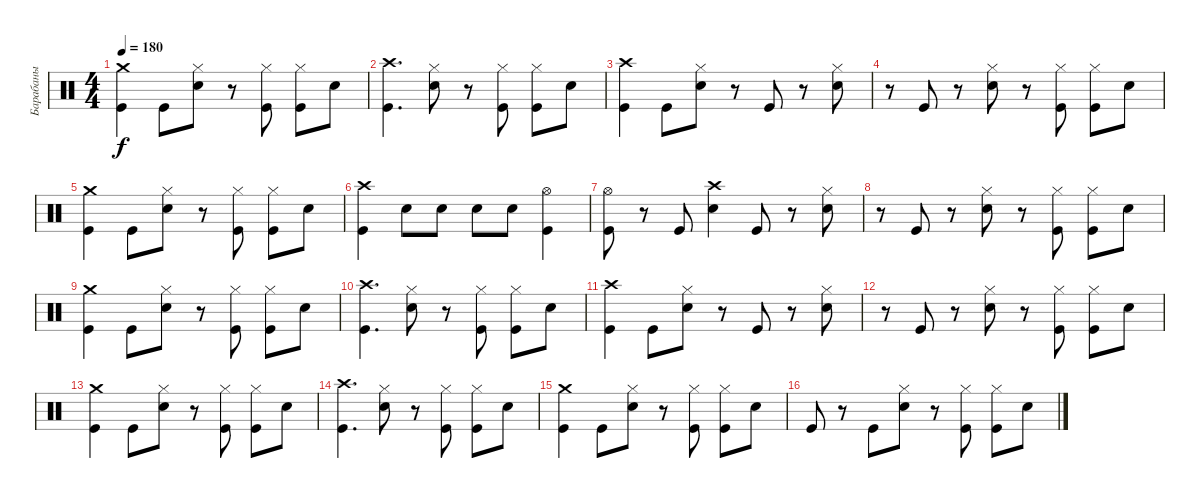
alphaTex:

\track ("Барабаны" "Барабаны") {instrument percussion}
\staff {score}
\articulation defaults
\ts (4 4)
\tempo 180
\clef neutral
\ks c
("Kick (hit)" "Crash medium (hit)").4{dy f} "Kick (hit)".8 ("Electric Snare (hit)" "Hi-Hat (closed)").8 r.8 ("Hi-Hat (closed)" "Kick (hit)").8 ("Hi-Hat (closed)" "Kick (hit)").8 "Electric Snare (hit)".8 |
("Crash high (hit)" "Kick (hit)").4{d} ("Hi-Hat (closed)" "Electric Snare (hit)").8 r.8 ("Hi-Hat (closed)" "Kick (hit)").8 ("Kick (hit)" "Hi-Hat (closed)").8 "Electric Snare (hit)".8 |
("Kick (hit)" "Crash high (hit)").4 "Kick (hit)".8 ("Hi-Hat (closed)" "Electric Snare (hit)").8 r.8 "Kick (hit)".8 r.8 ("Electric Snare (hit)" "Hi-Hat (closed)").8 |
r.8 "Kick (hit)".8 r.8 ("Electric Snare (hit)" "Hi-Hat (closed)").8 r.8 ("Kick (hit)" "Hi-Hat (closed)").8 ("Kick (hit)" "Hi-Hat (closed)").8 "Electric Snare (hit)".8 |
("Crash medium (hit)" "Kick (hit)").4 "Kick (hit)".8 ("Electric Snare (hit)" "Hi-Hat (closed)").8 r.8 ("Hi-Hat (closed)" "Kick (hit)").8 ("Hi-Hat (closed)" "Kick (hit)").8 "Electric Snare (hit)".8 |
("Kick (hit)" "Crash high (hit)").4 "Electric Snare (hit)".8 "Electric Snare (hit)".8 "Electric Snare (hit)".8 "Electric Snare (hit)".8 ("Hi-Hat (open)" "Kick (hit)").4 |
("Hi-Hat (open)" "Kick (hit)").8 r.8 "Kick (hit)".8 ("Electric Snare (hit)" "Crash high (hit)").4 "Kick (hit)".8 r.8 ("Hi-Hat (closed)" "Electric Snare (hit)").8 |
r.8 "Kick (hit)".8 r.8 ("Electric Snare (hit)" "Hi-Hat (closed)").8 r.8 ("Hi-Hat (closed)" "Kick (hit)").8 ("Kick (hit)" "Hi-Hat (closed)").8 "Electric Snare (hit)".8 |
("Crash medium (hit)" "Kick (hit)").4 "Kick (hit)".8 ("Electric Snare (hit)" "Hi-Hat (closed)").8 r.8 ("Kick (hit)" "Hi-Hat (closed)").8 ("Hi-Hat (closed)" "Kick (hit)").8 "Electric Snare (hit)".8 |
("Crash high (hit)" "Kick (hit)").4{d} ("Electric Snare (hit)" "Hi-Hat (closed)").8 r.8 ("Hi-Hat (closed)" "Kick (hit)").8 ("Kick (hit)" "Hi-Hat (closed)").8 "Electric Snare (hit)".8 |
("Kick (hit)" "Crash high (hit)").4 "Kick (hit)".8 ("Hi-Hat (closed)" "Electric Snare (hit)").8 r.8 "Kick (hit)".8 r.8 ("Electric Snare (hit)" "Hi-Hat (closed)").8 |
r.8 "Kick (hit)".8 r.8 ("Hi-Hat (closed)" "Electric Snare (hit)").8 r.8 ("Kick (hit)" "Hi-Hat (closed)").8 ("Kick (hit)" "Hi-Hat (closed)").8 "Electric Snare (hit)".8 |
("Kick (hit)" "Crash medium (hit)").4 "Kick (hit)".8 ("Electric Snare (hit)" "Hi-Hat (closed)").8 r.8 ("Kick (hit)" "Hi-Hat (closed)").8 ("Kick (hit)" "Hi-Hat (closed)").8 "Electric Snare (hit)".8 |
("Crash high (hit)" "Kick (hit)").4{d} ("Electric Snare (hit)" "Hi-Hat (closed)").8 r.8 ("Hi-Hat (closed)" "Kick (hit)").8 ("Kick (hit)" "Hi-Hat (closed)").8 "Electric Snare (hit)".8 |
("Kick (hit)" "Crash medium (hit)").4 "Kick (hit)".8 ("Electric Snare (hit)" "Hi-Hat (closed)").8 r.8 ("Kick (hit)" "Hi-Hat (closed)").8 ("Hi-Hat (closed)" "Kick (hit)").8 "Electric Snare (hit)".8 |
"Kick (hit)".8 r.8 "Kick (hit)".8 ("Electric Snare (hit)" "Hi-Hat (closed)").8 r.8 ("Hi-Hat (closed)" "Kick (hit)").8 ("Kick (hit)" "Hi-Hat (closed)").8 "Electric Snare (hit)".8
